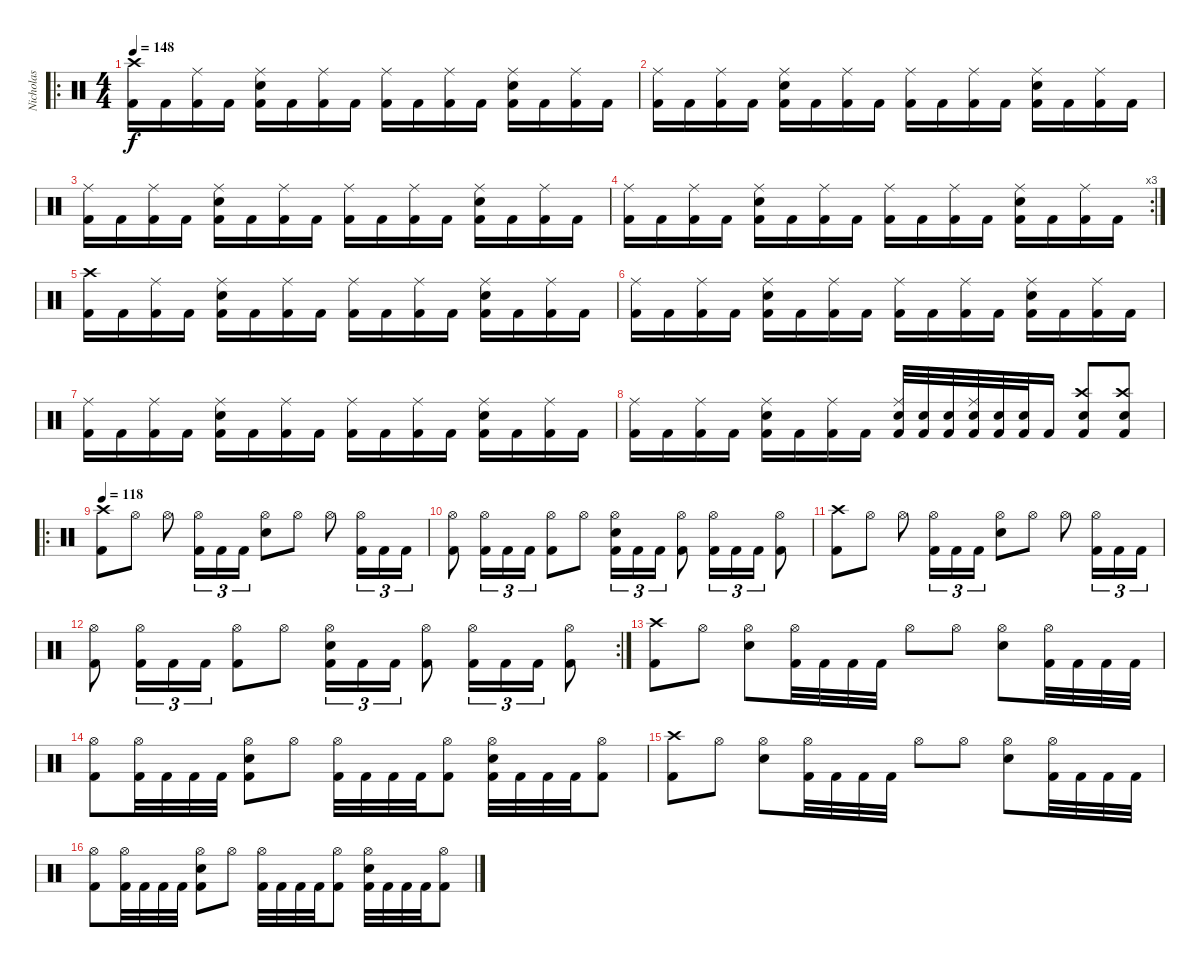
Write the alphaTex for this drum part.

\track ("Nicholas" "Nicholas") {instrument percussion}
\staff {score}
\articulation defaults
\ro
\ts (4 4)
\tempo 148
\clef neutral
\ks c
("Kick (hit) 2" "Crash high (hit)").16{dy f} "Kick (hit) 2".16 ("Kick (hit) 2" "Ride (middle)").16 "Kick (hit) 2".16 ("Kick (hit) 2" "Snare (hit) 2" "Ride (middle)").16 "Kick (hit) 2".16 ("Kick (hit) 2" "Ride (middle)").16 "Kick (hit) 2".16 ("Kick (hit) 2" "Ride (middle)").16 "Kick (hit) 2".16 ("Kick (hit) 2" "Ride (middle)").16 "Kick (hit) 2".16 ("Kick (hit) 2" "Snare (hit) 2" "Ride (middle)").16 "Kick (hit) 2".16 ("Kick (hit) 2" "Ride (middle)").16 "Kick (hit) 2".16 |
("Kick (hit) 2" "Ride (middle)").16 "Kick (hit) 2".16 ("Kick (hit) 2" "Ride (middle)").16 "Kick (hit) 2".16 ("Kick (hit) 2" "Snare (hit) 2" "Ride (middle)").16 "Kick (hit) 2".16 ("Kick (hit) 2" "Ride (middle)").16 "Kick (hit) 2".16 ("Kick (hit) 2" "Ride (middle)").16 "Kick (hit) 2".16 ("Kick (hit) 2" "Ride (middle)").16 "Kick (hit) 2".16 ("Kick (hit) 2" "Snare (hit) 2" "Ride (middle)").16 "Kick (hit) 2".16 ("Kick (hit) 2" "Ride (middle)").16 "Kick (hit) 2".16 |
("Kick (hit) 2" "Ride (middle)").16 "Kick (hit) 2".16 ("Kick (hit) 2" "Ride (middle)").16 "Kick (hit) 2".16 ("Kick (hit) 2" "Snare (hit) 2" "Ride (middle)").16 "Kick (hit) 2".16 ("Kick (hit) 2" "Ride (middle)").16 "Kick (hit) 2".16 ("Kick (hit) 2" "Ride (middle)").16 "Kick (hit) 2".16 ("Kick (hit) 2" "Ride (middle)").16 "Kick (hit) 2".16 ("Kick (hit) 2" "Snare (hit) 2" "Ride (middle)").16 "Kick (hit) 2".16 ("Kick (hit) 2" "Ride (middle)").16 "Kick (hit) 2".16 |
\rc 3
("Kick (hit) 2" "Ride (middle)").16 "Kick (hit) 2".16 ("Kick (hit) 2" "Ride (middle)").16 "Kick (hit) 2".16 ("Kick (hit) 2" "Snare (hit) 2" "Ride (middle)").16 "Kick (hit) 2".16 ("Kick (hit) 2" "Ride (middle)").16 "Kick (hit) 2".16 ("Kick (hit) 2" "Ride (middle)").16 "Kick (hit) 2".16 ("Kick (hit) 2" "Ride (middle)").16 "Kick (hit) 2".16 ("Kick (hit) 2" "Snare (hit) 2" "Ride (middle)").16 "Kick (hit) 2".16 ("Kick (hit) 2" "Ride (middle)").16 "Kick (hit) 2".16 |
("Kick (hit) 2" "Crash high (hit)").16 "Kick (hit) 2".16 ("Kick (hit) 2" "Ride (middle)").16 "Kick (hit) 2".16 ("Kick (hit) 2" "Snare (hit) 2" "Ride (middle)").16 "Kick (hit) 2".16 ("Kick (hit) 2" "Ride (middle)").16 "Kick (hit) 2".16 ("Kick (hit) 2" "Ride (middle)").16 "Kick (hit) 2".16 ("Kick (hit) 2" "Ride (middle)").16 "Kick (hit) 2".16 ("Kick (hit) 2" "Snare (hit) 2" "Ride (middle)").16 "Kick (hit) 2".16 ("Kick (hit) 2" "Ride (middle)").16 "Kick (hit) 2".16 |
("Kick (hit) 2" "Ride (middle)").16 "Kick (hit) 2".16 ("Kick (hit) 2" "Ride (middle)").16 "Kick (hit) 2".16 ("Kick (hit) 2" "Snare (hit) 2" "Ride (middle)").16 "Kick (hit) 2".16 ("Kick (hit) 2" "Ride (middle)").16 "Kick (hit) 2".16 ("Kick (hit) 2" "Ride (middle)").16 "Kick (hit) 2".16 ("Kick (hit) 2" "Ride (middle)").16 "Kick (hit) 2".16 ("Kick (hit) 2" "Snare (hit) 2" "Ride (middle)").16 "Kick (hit) 2".16 ("Kick (hit) 2" "Ride (middle)").16 "Kick (hit) 2".16 |
("Kick (hit) 2" "Ride (middle)").16 "Kick (hit) 2".16 ("Kick (hit) 2" "Ride (middle)").16 "Kick (hit) 2".16 ("Kick (hit) 2" "Snare (hit) 2" "Ride (middle)").16 "Kick (hit) 2".16 ("Kick (hit) 2" "Ride (middle)").16 "Kick (hit) 2".16 ("Kick (hit) 2" "Ride (middle)").16 "Kick (hit) 2".16 ("Kick (hit) 2" "Ride (middle)").16 "Kick (hit) 2".16 ("Kick (hit) 2" "Snare (hit) 2" "Ride (middle)").16 "Kick (hit) 2".16 ("Kick (hit) 2" "Ride (middle)").16 "Kick (hit) 2".16 |
("Kick (hit) 2" "Ride (middle)").16 "Kick (hit) 2".16 ("Kick (hit) 2" "Ride (middle)").16 "Kick (hit) 2".16 ("Kick (hit) 2" "Snare (hit) 2" "Ride (middle)").16 "Kick (hit) 2".16 ("Kick (hit) 2" "Ride (middle)").16 "Kick (hit) 2".16 ("Kick (hit) 2" "Snare (hit) 2" "Ride (middle)").32 ("Kick (hit) 2" "Snare (hit) 2").32 ("Kick (hit) 2" "Snare (hit) 2").32 ("Kick (hit) 2" "Snare (hit) 2" "Ride (middle)").32 ("Kick (hit) 2" "Snare (hit) 2").32 ("Kick (hit) 2" "Snare (hit) 2").32 "Kick (hit) 2".16 ("Kick (hit) 2" "Snare (hit) 2" "Crash high (hit)").8 ("Kick (hit) 2" "Snare (hit) 2" "Crash high (hit)").8 |
\ro
\tempo 118
("Kick (hit) 2" "Crash high (hit)").8 "Hi-Hat (open)".8 "Hi-Hat (open)".8 ("Kick (hit) 2" "Hi-Hat (open)").16{tu (3 2)} "Kick (hit) 2".16{tu (3 2)} "Kick (hit) 2".16{tu (3 2)} ("Snare (hit) 2" "Hi-Hat (open)").8 "Hi-Hat (open)".8 "Hi-Hat (open)".8 ("Kick (hit) 2" "Hi-Hat (open)").16{tu (3 2)} "Kick (hit) 2".16{tu (3 2)} "Kick (hit) 2".16{tu (3 2)} |
("Kick (hit) 2" "Hi-Hat (open)").8 ("Kick (hit) 2" "Hi-Hat (open)").16{tu (3 2)} "Kick (hit) 2".16{tu (3 2)} "Kick (hit) 2".16{tu (3 2)} ("Kick (hit) 2" "Hi-Hat (open)").8 "Hi-Hat (open)".8 ("Kick (hit) 2" "Snare (hit) 2" "Hi-Hat (open)").16{tu (3 2)} "Kick (hit) 2".16{tu (3 2)} "Kick (hit) 2".16{tu (3 2)} ("Kick (hit) 2" "Hi-Hat (open)").8 ("Kick (hit) 2" "Hi-Hat (open)").16{tu (3 2)} "Kick (hit) 2".16{tu (3 2)} "Kick (hit) 2".16{tu (3 2)} ("Kick (hit) 2" "Hi-Hat (open)").8 |
("Kick (hit) 2" "Crash high (hit)").8 "Hi-Hat (open)".8 "Hi-Hat (open)".8 ("Kick (hit) 2" "Hi-Hat (open)").16{tu (3 2)} "Kick (hit) 2".16{tu (3 2)} "Kick (hit) 2".16{tu (3 2)} ("Snare (hit) 2" "Hi-Hat (open)").8 "Hi-Hat (open)".8 "Hi-Hat (open)".8 ("Kick (hit) 2" "Hi-Hat (open)").16{tu (3 2)} "Kick (hit) 2".16{tu (3 2)} "Kick (hit) 2".16{tu (3 2)} |
\rc 2
("Kick (hit) 2" "Hi-Hat (open)").8 ("Kick (hit) 2" "Hi-Hat (open)").16{tu (3 2)} "Kick (hit) 2".16{tu (3 2)} "Kick (hit) 2".16{tu (3 2)} ("Kick (hit) 2" "Hi-Hat (open)").8 "Hi-Hat (open)".8 ("Kick (hit) 2" "Snare (hit) 2" "Hi-Hat (open)").16{tu (3 2)} "Kick (hit) 2".16{tu (3 2)} "Kick (hit) 2".16{tu (3 2)} ("Kick (hit) 2" "Hi-Hat (open)").8 ("Kick (hit) 2" "Hi-Hat (open)").16{tu (3 2)} "Kick (hit) 2".16{tu (3 2)} "Kick (hit) 2".16{tu (3 2)} ("Kick (hit) 2" "Hi-Hat (open)").8 |
("Kick (hit) 2" "Crash high (hit)").8 "Hi-Hat (open)".8 ("Snare (hit) 2" "Hi-Hat (open)").8 ("Kick (hit) 2" "Hi-Hat (open)").32 "Kick (hit) 2".32 "Kick (hit) 2".32 "Kick (hit) 2".32 "Hi-Hat (open)".8 "Hi-Hat (open)".8 ("Snare (hit) 2" "Hi-Hat (open)").8 ("Kick (hit) 2" "Hi-Hat (open)").32 "Kick (hit) 2".32 "Kick (hit) 2".32 "Kick (hit) 2".32 |
("Kick (hit) 2" "Hi-Hat (open)").8 ("Kick (hit) 2" "Hi-Hat (open)").32 "Kick (hit) 2".32 "Kick (hit) 2".32 "Kick (hit) 2".32 ("Kick (hit) 2" "Snare (hit) 2" "Hi-Hat (open)").8 "Hi-Hat (open)".8 ("Kick (hit) 2" "Hi-Hat (open)").32 "Kick (hit) 2".32 "Kick (hit) 2".32 "Kick (hit) 2".32 ("Kick (hit) 2" "Hi-Hat (open)").8 ("Kick (hit) 2" "Snare (hit) 2" "Hi-Hat (open)").32 "Kick (hit) 2".32 "Kick (hit) 2".32 "Kick (hit) 2".32 ("Kick (hit) 2" "Hi-Hat (open)").8 |
("Kick (hit) 2" "Crash high (hit)").8 "Hi-Hat (open)".8 ("Snare (hit) 2" "Hi-Hat (open)").8 ("Kick (hit) 2" "Hi-Hat (open)").32 "Kick (hit) 2".32 "Kick (hit) 2".32 "Kick (hit) 2".32 "Hi-Hat (open)".8 "Hi-Hat (open)".8 ("Snare (hit) 2" "Hi-Hat (open)").8 ("Kick (hit) 2" "Hi-Hat (open)").32 "Kick (hit) 2".32 "Kick (hit) 2".32 "Kick (hit) 2".32 |
("Kick (hit) 2" "Hi-Hat (open)").8 ("Kick (hit) 2" "Hi-Hat (open)").32 "Kick (hit) 2".32 "Kick (hit) 2".32 "Kick (hit) 2".32 ("Kick (hit) 2" "Snare (hit) 2" "Hi-Hat (open)").8 "Hi-Hat (open)".8 ("Kick (hit) 2" "Hi-Hat (open)").32 "Kick (hit) 2".32 "Kick (hit) 2".32 "Kick (hit) 2".32 ("Kick (hit) 2" "Hi-Hat (open)").8 ("Kick (hit) 2" "Snare (hit) 2" "Hi-Hat (open)").32 "Kick (hit) 2".32 "Kick (hit) 2".32 "Kick (hit) 2".32 ("Kick (hit) 2" "Hi-Hat (open)").8
